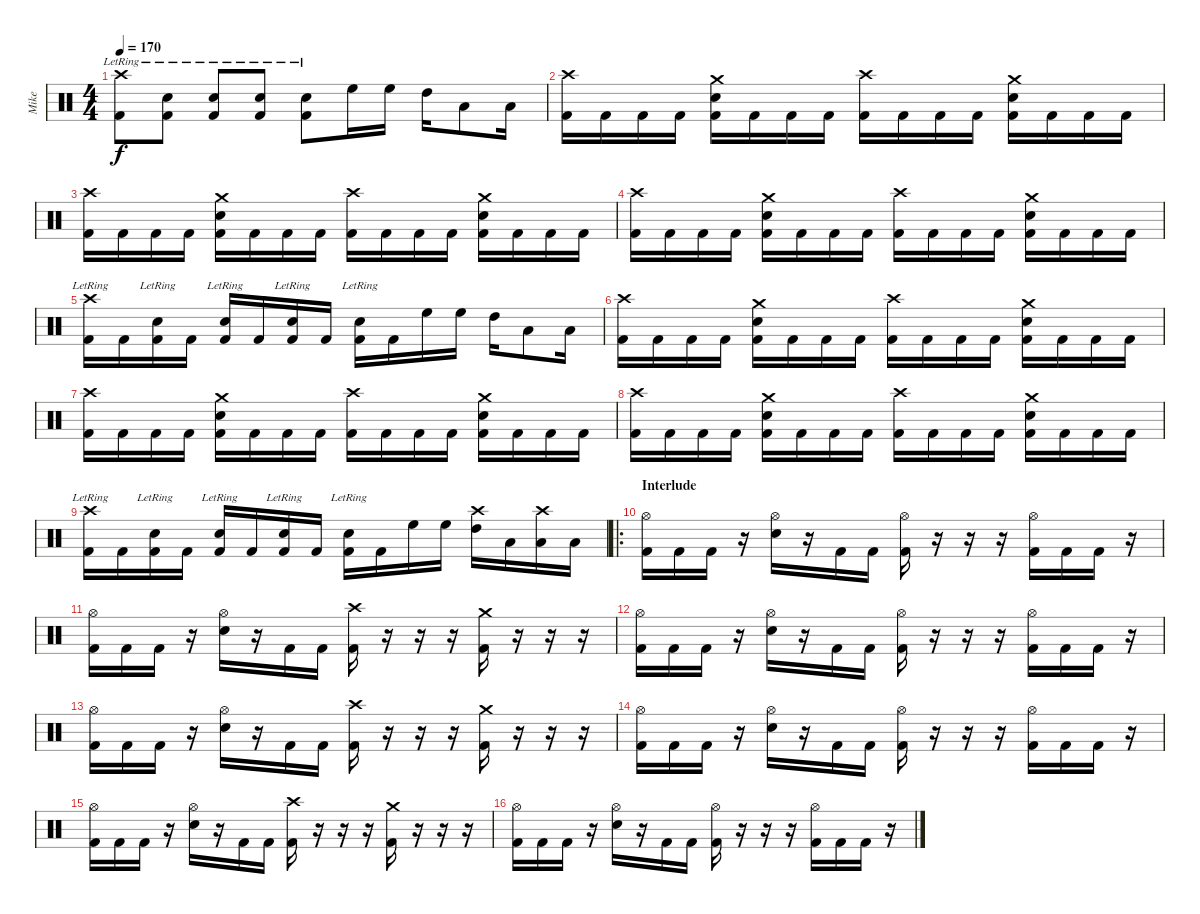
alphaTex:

\track ("Mike" "Mike") {instrument percussion}
\staff {score}
\articulation defaults
\ts (4 4)
\tempo 170
\clef neutral
\ks c
("Crash high (hit)"{lr} "Kick (hit) 2").8{dy f} ("Snare (hit) 2"{lr} "Kick (hit) 2").8 ("Snare (hit) 2"{lr} "Kick (hit) 2").8 ("Snare (hit) 2"{lr} "Kick (hit) 2").8 ("Snare (hit) 2"{lr} "Kick (hit) 2").8 "High Floor Tom (hit)".16 "High Floor Tom (hit)".16 "High Tom (hit)".16 "Low Tom (hit)".8 "Low Tom (hit)".16 |
("Crash high (hit)" "Kick (hit) 2").16 "Kick (hit) 2".16 "Kick (hit) 2".16 "Kick (hit) 2".16 ("Crash medium (hit)" "Snare (hit) 2" "Kick (hit) 2").16 "Kick (hit) 2".16 "Kick (hit) 2".16 "Kick (hit) 2".16 ("Crash high (hit)" "Kick (hit) 2").16 "Kick (hit) 2".16 "Kick (hit) 2".16 "Kick (hit) 2".16 ("Crash medium (hit)" "Snare (hit) 2" "Kick (hit) 2").16 "Kick (hit) 2".16 "Kick (hit) 2".16 "Kick (hit) 2".16 |
("Crash high (hit)" "Kick (hit) 2").16 "Kick (hit) 2".16 "Kick (hit) 2".16 "Kick (hit) 2".16 ("Crash medium (hit)" "Snare (hit) 2" "Kick (hit) 2").16 "Kick (hit) 2".16 "Kick (hit) 2".16 "Kick (hit) 2".16 ("Crash high (hit)" "Kick (hit) 2").16 "Kick (hit) 2".16 "Kick (hit) 2".16 "Kick (hit) 2".16 ("Crash medium (hit)" "Snare (hit) 2" "Kick (hit) 2").16 "Kick (hit) 2".16 "Kick (hit) 2".16 "Kick (hit) 2".16 |
("Crash high (hit)" "Kick (hit) 2").16 "Kick (hit) 2".16 "Kick (hit) 2".16 "Kick (hit) 2".16 ("Crash medium (hit)" "Snare (hit) 2" "Kick (hit) 2").16 "Kick (hit) 2".16 "Kick (hit) 2".16 "Kick (hit) 2".16 ("Crash high (hit)" "Kick (hit) 2").16 "Kick (hit) 2".16 "Kick (hit) 2".16 "Kick (hit) 2".16 ("Crash medium (hit)" "Snare (hit) 2" "Kick (hit) 2").16 "Kick (hit) 2".16 "Kick (hit) 2".16 "Kick (hit) 2".16 |
("Crash high (hit)"{lr} "Kick (hit) 2").16 "Kick (hit) 2".16 ("Snare (hit) 2"{lr} "Kick (hit) 2").16 "Kick (hit) 2".16 ("Snare (hit) 2"{lr} "Kick (hit) 2").16 "Kick (hit) 2".16 ("Snare (hit) 2"{lr} "Kick (hit) 2").16 "Kick (hit) 2".16 ("Snare (hit) 2"{lr} "Kick (hit) 2").16 "Kick (hit) 2".16 "High Floor Tom (hit)".16 "High Floor Tom (hit)".16 "High Tom (hit)".16 "Low Tom (hit)".8 "Low Tom (hit)".16 |
("Crash high (hit)" "Kick (hit) 2").16 "Kick (hit) 2".16 "Kick (hit) 2".16 "Kick (hit) 2".16 ("Crash medium (hit)" "Snare (hit) 2" "Kick (hit) 2").16 "Kick (hit) 2".16 "Kick (hit) 2".16 "Kick (hit) 2".16 ("Crash high (hit)" "Kick (hit) 2").16 "Kick (hit) 2".16 "Kick (hit) 2".16 "Kick (hit) 2".16 ("Crash medium (hit)" "Snare (hit) 2" "Kick (hit) 2").16 "Kick (hit) 2".16 "Kick (hit) 2".16 "Kick (hit) 2".16 |
("Crash high (hit)" "Kick (hit) 2").16 "Kick (hit) 2".16 "Kick (hit) 2".16 "Kick (hit) 2".16 ("Crash medium (hit)" "Snare (hit) 2" "Kick (hit) 2").16 "Kick (hit) 2".16 "Kick (hit) 2".16 "Kick (hit) 2".16 ("Crash high (hit)" "Kick (hit) 2").16 "Kick (hit) 2".16 "Kick (hit) 2".16 "Kick (hit) 2".16 ("Crash medium (hit)" "Snare (hit) 2" "Kick (hit) 2").16 "Kick (hit) 2".16 "Kick (hit) 2".16 "Kick (hit) 2".16 |
("Crash high (hit)" "Kick (hit) 2").16 "Kick (hit) 2".16 "Kick (hit) 2".16 "Kick (hit) 2".16 ("Crash medium (hit)" "Snare (hit) 2" "Kick (hit) 2").16 "Kick (hit) 2".16 "Kick (hit) 2".16 "Kick (hit) 2".16 ("Crash high (hit)" "Kick (hit) 2").16 "Kick (hit) 2".16 "Kick (hit) 2".16 "Kick (hit) 2".16 ("Crash medium (hit)" "Snare (hit) 2" "Kick (hit) 2").16 "Kick (hit) 2".16 "Kick (hit) 2".16 "Kick (hit) 2".16 |
("Crash high (hit)"{lr} "Kick (hit) 2").16 "Kick (hit) 2".16 ("Snare (hit) 2"{lr} "Kick (hit) 2").16 "Kick (hit) 2".16 ("Snare (hit) 2"{lr} "Kick (hit) 2").16 "Kick (hit) 2".16 ("Snare (hit) 2"{lr} "Kick (hit) 2").16 "Kick (hit) 2".16 ("Snare (hit) 2"{lr} "Kick (hit) 2").16 "Kick (hit) 2".16 "High Floor Tom (hit)".16 "High Floor Tom (hit)".16 ("Crash high (hit)" "High Tom (hit)").16 "Low Tom (hit)".16 ("Crash high (hit)" "Low Tom (hit)").16 "Low Tom (hit)".16 |
\ro
\section ("" "Interlude")
("Hi-Hat (open)" "Kick (hit) 2").16 "Kick (hit) 2".16 "Kick (hit) 2".16 r.16 ("Hi-Hat (open)" "Snare (hit) 2").16 r.16 "Kick (hit) 2".16 "Kick (hit) 2".16 ("Hi-Hat (open)" "Kick (hit) 2").16 r.16 r.16 r.16 ("Hi-Hat (open)" "Kick (hit) 2").16 "Kick (hit) 2".16 "Kick (hit) 2".16 r.16 |
("Hi-Hat (open)" "Kick (hit) 2").16 "Kick (hit) 2".16 "Kick (hit) 2".16 r.16 ("Hi-Hat (open)" "Snare (hit) 2").16 r.16 "Kick (hit) 2".16 "Kick (hit) 2".16 ("Crash high (hit)" "Kick (hit) 2").16 r.16 r.16 r.16 ("Crash medium (hit)" "Kick (hit) 2").16 r.16 r.16 r.16 |
("Hi-Hat (open)" "Kick (hit) 2").16 "Kick (hit) 2".16 "Kick (hit) 2".16 r.16 ("Hi-Hat (open)" "Snare (hit) 2").16 r.16 "Kick (hit) 2".16 "Kick (hit) 2".16 ("Hi-Hat (open)" "Kick (hit) 2").16 r.16 r.16 r.16 ("Hi-Hat (open)" "Kick (hit) 2").16 "Kick (hit) 2".16 "Kick (hit) 2".16 r.16 |
("Hi-Hat (open)" "Kick (hit) 2").16 "Kick (hit) 2".16 "Kick (hit) 2".16 r.16 ("Hi-Hat (open)" "Snare (hit) 2").16 r.16 "Kick (hit) 2".16 "Kick (hit) 2".16 ("Crash high (hit)" "Kick (hit) 2").16 r.16 r.16 r.16 ("Crash medium (hit)" "Kick (hit) 2").16 r.16 r.16 r.16 |
("Hi-Hat (open)" "Kick (hit) 2").16 "Kick (hit) 2".16 "Kick (hit) 2".16 r.16 ("Hi-Hat (open)" "Snare (hit) 2").16 r.16 "Kick (hit) 2".16 "Kick (hit) 2".16 ("Hi-Hat (open)" "Kick (hit) 2").16 r.16 r.16 r.16 ("Hi-Hat (open)" "Kick (hit) 2").16 "Kick (hit) 2".16 "Kick (hit) 2".16 r.16 |
("Hi-Hat (open)" "Kick (hit) 2").16 "Kick (hit) 2".16 "Kick (hit) 2".16 r.16 ("Hi-Hat (open)" "Snare (hit) 2").16 r.16 "Kick (hit) 2".16 "Kick (hit) 2".16 ("Crash high (hit)" "Kick (hit) 2").16 r.16 r.16 r.16 ("Crash medium (hit)" "Kick (hit) 2").16 r.16 r.16 r.16 |
("Hi-Hat (open)" "Kick (hit) 2").16 "Kick (hit) 2".16 "Kick (hit) 2".16 r.16 ("Hi-Hat (open)" "Snare (hit) 2").16 r.16 "Kick (hit) 2".16 "Kick (hit) 2".16 ("Hi-Hat (open)" "Kick (hit) 2").16 r.16 r.16 r.16 ("Hi-Hat (open)" "Kick (hit) 2").16 "Kick (hit) 2".16 "Kick (hit) 2".16 r.16
